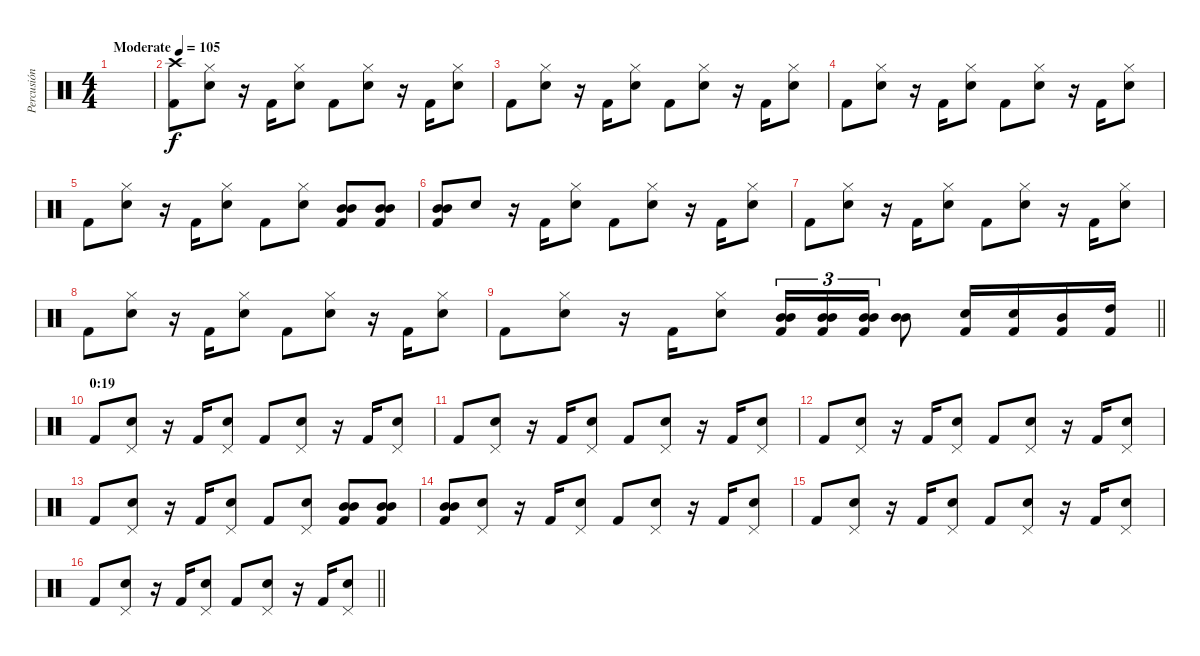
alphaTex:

\track ("Percusión" "Percusión") {instrument percussion}
\staff {score}
\articulation defaults
\ts (4 4)
\tempo (105 "Moderate")
\clef neutral
\ks c
|
("Kick (hit) 2" "Crash high (hit)").8 ("Snare (hit) 2" "Hi-Hat (closed)").8 r.16 "Kick (hit) 2".16 ("Snare (hit) 2" "Hi-Hat (closed)").8 "Kick (hit) 2".8 ("Snare (hit) 2" "Hi-Hat (closed)").8 r.16 "Kick (hit) 2".16 ("Snare (hit) 2" "Hi-Hat (closed)").8 |
"Kick (hit) 2".8 ("Snare (hit) 2" "Hi-Hat (closed)").8 r.16 "Kick (hit) 2".16 ("Snare (hit) 2" "Hi-Hat (closed)").8 "Kick (hit) 2".8 ("Snare (hit) 2" "Hi-Hat (closed)").8 r.16 "Kick (hit) 2".16 ("Snare (hit) 2" "Hi-Hat (closed)").8 |
"Kick (hit) 2".8 ("Snare (hit) 2" "Hi-Hat (closed)").8 r.16 "Kick (hit) 2".16 ("Snare (hit) 2" "Hi-Hat (closed)").8 "Kick (hit) 2".8 ("Snare (hit) 2" "Hi-Hat (closed)").8 r.16 "Kick (hit) 2".16 ("Snare (hit) 2" "Hi-Hat (closed)").8 |
"Kick (hit) 2".8 ("Snare (hit) 2" "Hi-Hat (closed)").8 r.16 "Kick (hit) 2".16 ("Snare (hit) 2" "Hi-Hat (closed)").8 "Kick (hit) 2".8 ("Snare (hit) 2" "Hi-Hat (closed)").8 ("Kick (hit) 2" "Mid Tom (hit)" "Mid Tom (hit)").8 ("Kick (hit) 2" "Mid Tom (hit)" "Mid Tom (hit)").8 |
("Kick (hit) 2" "Mid Tom (hit)" "Mid Tom (hit)").8 "Snare (hit) 2".8 r.16 "Kick (hit) 2".16 ("Snare (hit) 2" "Hi-Hat (closed)").8 "Kick (hit) 2".8 ("Snare (hit) 2" "Hi-Hat (closed)").8 r.16 "Kick (hit) 2".16 ("Snare (hit) 2" "Hi-Hat (closed)").8 |
"Kick (hit) 2".8 ("Snare (hit) 2" "Hi-Hat (closed)").8 r.16 "Kick (hit) 2".16 ("Snare (hit) 2" "Hi-Hat (closed)").8 "Kick (hit) 2".8 ("Snare (hit) 2" "Hi-Hat (closed)").8 r.16 "Kick (hit) 2".16 ("Snare (hit) 2" "Hi-Hat (closed)").8 |
"Kick (hit) 2".8 ("Snare (hit) 2" "Hi-Hat (closed)").8 r.16 "Kick (hit) 2".16 ("Snare (hit) 2" "Hi-Hat (closed)").8 "Kick (hit) 2".8 ("Snare (hit) 2" "Hi-Hat (closed)").8 r.16 "Kick (hit) 2".16 ("Snare (hit) 2" "Hi-Hat (closed)").8 |
\barLineRight lightlight "Kick (hit) 2".8
("Snare (hit) 2" "Hi-Hat (closed)").8 r.16 "Kick (hit) 2".16 ("Snare (hit) 2" "Hi-Hat (closed)").8 ("Kick (hit) 2" "Mid Tom (hit)" "Mid Tom (hit)").16{tu (3 2)} ("Kick (hit) 2" "Mid Tom (hit)" "Mid Tom (hit)").16{tu (3 2)} ("Kick (hit) 2" "Mid Tom (hit)" "Mid Tom (hit)").16{tu (3 2)} ("Mid Tom (hit)" "Mid Tom (hit)").8 ("Kick (hit) 2" "Snare (hit) 2").16 ("Kick (hit) 2" "Snare (hit) 2").16 ("Kick (hit) 2" "Mid Tom (hit)").16 ("Kick (hit) 2" "High Tom (hit)").16 |
\section ("" "0:19")
"Kick (hit) 2".8 ("Snare (hit) 2" "Pedal Hi-Hat (hit)").8 r.16 "Kick (hit) 2".16 ("Snare (hit) 2" "Pedal Hi-Hat (hit)").8 "Kick (hit) 2".8 ("Snare (hit) 2" "Pedal Hi-Hat (hit)").8 r.16 "Kick (hit) 2".16 ("Snare (hit) 2" "Pedal Hi-Hat (hit)").8 |
"Kick (hit) 2".8 ("Snare (hit) 2" "Pedal Hi-Hat (hit)").8 r.16 "Kick (hit) 2".16 ("Snare (hit) 2" "Pedal Hi-Hat (hit)").8 "Kick (hit) 2".8 ("Snare (hit) 2" "Pedal Hi-Hat (hit)").8 r.16 "Kick (hit) 2".16 ("Snare (hit) 2" "Pedal Hi-Hat (hit)").8 |
"Kick (hit) 2".8 ("Snare (hit) 2" "Pedal Hi-Hat (hit)").8 r.16 "Kick (hit) 2".16 ("Snare (hit) 2" "Pedal Hi-Hat (hit)").8 "Kick (hit) 2".8 ("Snare (hit) 2" "Pedal Hi-Hat (hit)").8 r.16 "Kick (hit) 2".16 ("Snare (hit) 2" "Pedal Hi-Hat (hit)").8 |
"Kick (hit) 2".8 ("Snare (hit) 2" "Pedal Hi-Hat (hit)").8 r.16 "Kick (hit) 2".16 ("Snare (hit) 2" "Pedal Hi-Hat (hit)").8 "Kick (hit) 2".8 ("Snare (hit) 2" "Pedal Hi-Hat (hit)").8 ("Kick (hit) 2" "Mid Tom (hit)" "Mid Tom (hit)").8 ("Kick (hit) 2" "Mid Tom (hit)" "Mid Tom (hit)").8 |
("Kick (hit) 2" "Mid Tom (hit)" "Mid Tom (hit)").8 ("Snare (hit) 2" "Pedal Hi-Hat (hit)").8 r.16 "Kick (hit) 2".16 ("Snare (hit) 2" "Pedal Hi-Hat (hit)").8 "Kick (hit) 2".8 ("Snare (hit) 2" "Pedal Hi-Hat (hit)").8 r.16 "Kick (hit) 2".16 ("Snare (hit) 2" "Pedal Hi-Hat (hit)").8 |
"Kick (hit) 2".8 ("Snare (hit) 2" "Pedal Hi-Hat (hit)").8 r.16 "Kick (hit) 2".16 ("Snare (hit) 2" "Pedal Hi-Hat (hit)").8 "Kick (hit) 2".8 ("Snare (hit) 2" "Pedal Hi-Hat (hit)").8 r.16 "Kick (hit) 2".16 ("Snare (hit) 2" "Pedal Hi-Hat (hit)").8 |
\barLineRight lightlight "Kick (hit) 2".8
("Snare (hit) 2" "Pedal Hi-Hat (hit)").8 r.16 "Kick (hit) 2".16 ("Snare (hit) 2" "Pedal Hi-Hat (hit)").8 "Kick (hit) 2".8 ("Snare (hit) 2" "Pedal Hi-Hat (hit)").8 r.16 "Kick (hit) 2".16 ("Snare (hit) 2" "Pedal Hi-Hat (hit)").8
